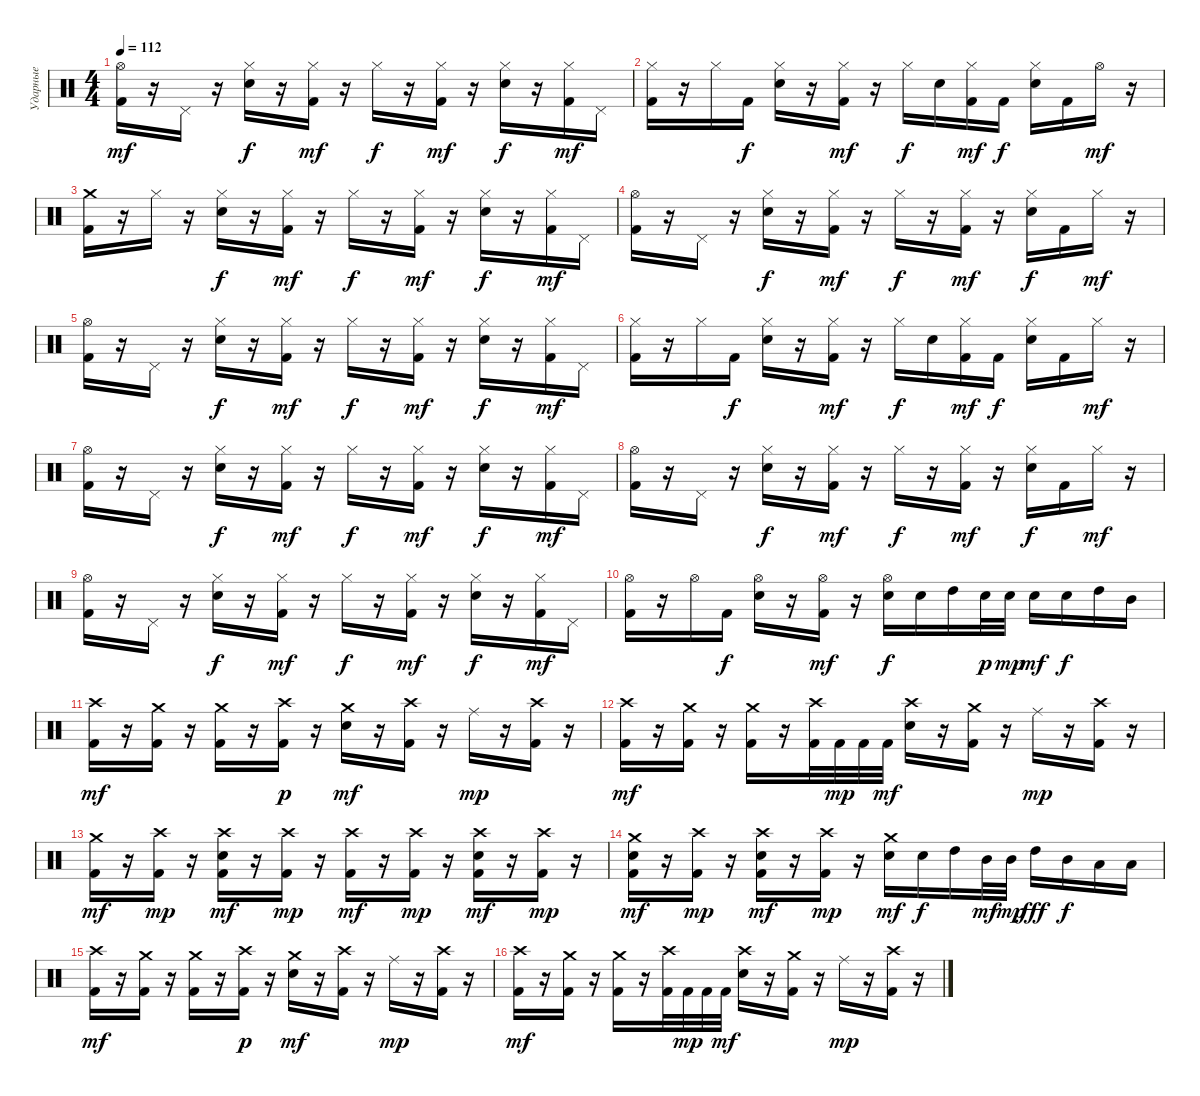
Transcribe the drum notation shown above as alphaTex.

\track ("Ударные" "Ударные") {instrument percussion}
\staff {score}
\articulation defaults
\ts (4 4)
\tempo 112
\clef neutral
\ks c
("Hi-Hat (open)" "Kick (hit) 2").16{dy mf} r.16 "Pedal Hi-Hat (hit)".16 r.16 ("Hi-Hat (closed)" "Electric Snare (hit)").16{dy f} r.16 ("Hi-Hat (closed)" "Kick (hit) 2").16{dy mf} r.16 "Hi-Hat (closed)".16{dy f} r.16 ("Hi-Hat (closed)" "Kick (hit) 2").16{dy mf} r.16 ("Hi-Hat (closed)" "Electric Snare (hit)").16{dy f} r.16 ("Hi-Hat (closed)" "Kick (hit) 2").16{dy mf} "Pedal Hi-Hat (hit)".16 |
("Hi-Hat (closed)" "Kick (hit) 2").16 r.16 "Hi-Hat (closed)".16 "Kick (hit) 2".16{dy f} ("Hi-Hat (closed)" "Electric Snare (hit)").16 r.16 ("Hi-Hat (closed)" "Kick (hit) 2").16{dy mf} r.16 "Hi-Hat (closed)".16{dy f} "Electric Snare (hit)".16 ("Hi-Hat (closed)" "Kick (hit) 2").16{dy mf} "Kick (hit) 2".16{dy f} ("Hi-Hat (closed)" "Electric Snare (hit)").16 "Kick (hit) 2".16 "Hi-Hat (open)".16{dy mf} r.16 |
("Crash medium (hit)" "Kick (hit) 2").16 r.16 "Hi-Hat (closed)".16 r.16 ("Hi-Hat (closed)" "Electric Snare (hit)").16{dy f} r.16 ("Hi-Hat (closed)" "Kick (hit) 2").16{dy mf} r.16 "Hi-Hat (closed)".16{dy f} r.16 ("Hi-Hat (closed)" "Kick (hit) 2").16{dy mf} r.16 ("Hi-Hat (closed)" "Electric Snare (hit)").16{dy f} r.16 ("Hi-Hat (closed)" "Kick (hit) 2").16{dy mf} "Pedal Hi-Hat (hit)".16 |
("Hi-Hat (open)" "Kick (hit) 2").16 r.16 "Pedal Hi-Hat (hit)".16 r.16 ("Hi-Hat (closed)" "Electric Snare (hit)").16{dy f} r.16 ("Hi-Hat (closed)" "Kick (hit) 2").16{dy mf} r.16 "Hi-Hat (closed)".16{dy f} r.16 ("Hi-Hat (closed)" "Kick (hit) 2").16{dy mf} r.16 ("Hi-Hat (closed)" "Electric Snare (hit)").16{dy f} "Kick (hit) 2".16 "Hi-Hat (closed)".16{dy mf} r.16 |
("Hi-Hat (open)" "Kick (hit) 2").16 r.16 "Pedal Hi-Hat (hit)".16 r.16 ("Hi-Hat (closed)" "Electric Snare (hit)").16{dy f} r.16 ("Hi-Hat (closed)" "Kick (hit) 2").16{dy mf} r.16 "Hi-Hat (closed)".16{dy f} r.16 ("Hi-Hat (closed)" "Kick (hit) 2").16{dy mf} r.16 ("Hi-Hat (closed)" "Electric Snare (hit)").16{dy f} r.16 ("Hi-Hat (closed)" "Kick (hit) 2").16{dy mf} "Pedal Hi-Hat (hit)".16 |
("Hi-Hat (closed)" "Kick (hit) 2").16 r.16 "Hi-Hat (closed)".16 "Kick (hit) 2".16{dy f} ("Hi-Hat (closed)" "Electric Snare (hit)").16 r.16 ("Hi-Hat (closed)" "Kick (hit) 2").16{dy mf} r.16 "Hi-Hat (closed)".16{dy f} "Electric Snare (hit)".16 ("Hi-Hat (closed)" "Kick (hit) 2").16{dy mf} "Kick (hit) 2".16{dy f} ("Hi-Hat (closed)" "Electric Snare (hit)").16 "Kick (hit) 2".16 "Hi-Hat (closed)".16{dy mf} r.16 |
("Hi-Hat (open)" "Kick (hit) 2").16 r.16 "Pedal Hi-Hat (hit)".16 r.16 ("Hi-Hat (closed)" "Electric Snare (hit)").16{dy f} r.16 ("Hi-Hat (closed)" "Kick (hit) 2").16{dy mf} r.16 "Hi-Hat (closed)".16{dy f} r.16 ("Hi-Hat (closed)" "Kick (hit) 2").16{dy mf} r.16 ("Hi-Hat (closed)" "Electric Snare (hit)").16{dy f} r.16 ("Hi-Hat (closed)" "Kick (hit) 2").16{dy mf} "Pedal Hi-Hat (hit)".16 |
("Hi-Hat (open)" "Kick (hit) 2").16 r.16 "Pedal Hi-Hat (hit)".16 r.16 ("Hi-Hat (closed)" "Electric Snare (hit)").16{dy f} r.16 ("Hi-Hat (closed)" "Kick (hit) 2").16{dy mf} r.16 "Hi-Hat (closed)".16{dy f} r.16 ("Hi-Hat (closed)" "Kick (hit) 2").16{dy mf} r.16 ("Hi-Hat (closed)" "Electric Snare (hit)").16{dy f} "Kick (hit) 2".16 "Hi-Hat (closed)".16{dy mf} r.16 |
("Hi-Hat (open)" "Kick (hit) 2").16 r.16 "Pedal Hi-Hat (hit)".16 r.16 ("Hi-Hat (closed)" "Electric Snare (hit)").16{dy f} r.16 ("Hi-Hat (closed)" "Kick (hit) 2").16{dy mf} r.16 "Hi-Hat (closed)".16{dy f} r.16 ("Hi-Hat (closed)" "Kick (hit) 2").16{dy mf} r.16 ("Hi-Hat (closed)" "Electric Snare (hit)").16{dy f} r.16 ("Hi-Hat (closed)" "Kick (hit) 2").16{dy mf} "Pedal Hi-Hat (hit)".16 |
("Hi-Hat (open)" "Kick (hit) 2").16 r.16 "Hi-Hat (open)".16 "Kick (hit) 2".16{dy f} ("Hi-Hat (open)" "Electric Snare (hit)").16 r.16 ("Hi-Hat (open)" "Kick (hit) 2").16{dy mf} r.16 ("Hi-Hat (open)" "Electric Snare (hit)").16{dy f} "Electric Snare (hit)".16 "High Tom (hit)".16 "Electric Snare (hit)".32{dy p} "Electric Snare (hit)".32{dy mp} "Electric Snare (hit)".16{dy mf} "Electric Snare (hit)".16{dy f} "High Tom (hit)".16 "Mid Tom (hit)".16 |
("Crash high (hit)" "Kick (hit) 2").16{dy mf} r.16 ("Crash medium (hit)" "Kick (hit) 2").16 r.16 ("Crash medium (hit)" "Kick (hit) 2").16 r.16 ("Crash high (hit)" "Kick (hit) 2").16{dy p} r.16 ("Crash medium (hit)" "Electric Snare (hit)").16{dy mf} r.16 ("Crash high (hit)" "Kick (hit) 2").16 r.16 "Ride (middle)".16{dy mp} r.16 ("Crash high (hit)" "Kick (hit) 2").16 r.16 |
("Crash high (hit)" "Kick (hit) 2").16{dy mf} r.16 ("Crash medium (hit)" "Kick (hit) 2").16 r.16 ("Crash medium (hit)" "Kick (hit) 2").16 r.16 ("Crash high (hit)" "Kick (hit) 2").32 "Kick (hit) 2".32{dy mp} "Kick (hit) 2".32 "Kick (hit) 2".32{dy mf} ("Crash high (hit)" "Electric Snare (hit)").16 r.16 ("Crash medium (hit)" "Kick (hit) 2").16 r.16 "Ride (middle)".16{dy mp} r.16 ("Crash high (hit)" "Kick (hit) 2").16 r.16 |
("Crash medium (hit)" "Kick (hit) 2").16{dy mf} r.16 ("Crash high (hit)" "Kick (hit) 2").16{dy mp} r.16 ("Crash high (hit)" "Electric Snare (hit)" "Kick (hit) 2").16{dy mf} r.16 ("Crash high (hit)" "Kick (hit) 2").16{dy mp} r.16 ("Crash high (hit)" "Kick (hit) 2").16{dy mf} r.16 ("Crash high (hit)" "Kick (hit) 2").16{dy mp} r.16 ("Crash high (hit)" "Electric Snare (hit)" "Kick (hit) 2").16{dy mf} r.16 ("Crash high (hit)" "Kick (hit) 2").16{dy mp} r.16 |
("Crash medium (hit)" "Electric Snare (hit)" "Kick (hit) 2").16{dy mf} r.16 ("Crash high (hit)" "Kick (hit) 2").16{dy mp} r.16 ("Crash high (hit)" "Electric Snare (hit)" "Kick (hit) 2").16{dy mf} r.16 ("Crash high (hit)" "Kick (hit) 2").16{dy mp} r.16 ("Crash medium (hit)" "Electric Snare (hit)").16{dy mf} "Electric Snare (hit)".16{dy f} "High Tom (hit)".16 "Mid Tom (hit)".32{dy mf} "Mid Tom (hit)".32{dy mp} "High Tom (hit)".16{dy fff} "Mid Tom (hit)".16{dy f} "Low Tom (hit)".16 "Low Tom (hit)".16 |
("Crash high (hit)" "Kick (hit) 2").16{dy mf} r.16 ("Crash medium (hit)" "Kick (hit) 2").16 r.16 ("Crash medium (hit)" "Kick (hit) 2").16 r.16 ("Crash high (hit)" "Kick (hit) 2").16{dy p} r.16 ("Crash medium (hit)" "Electric Snare (hit)").16{dy mf} r.16 ("Crash high (hit)" "Kick (hit) 2").16 r.16 "Ride (middle)".16{dy mp} r.16 ("Crash high (hit)" "Kick (hit) 2").16 r.16 |
("Crash high (hit)" "Kick (hit) 2").16{dy mf} r.16 ("Crash medium (hit)" "Kick (hit) 2").16 r.16 ("Crash medium (hit)" "Kick (hit) 2").16 r.16 ("Crash high (hit)" "Kick (hit) 2").32 "Kick (hit) 2".32{dy mp} "Kick (hit) 2".32 "Kick (hit) 2".32{dy mf} ("Crash high (hit)" "Electric Snare (hit)").16 r.16 ("Crash medium (hit)" "Kick (hit) 2").16 r.16 "Ride (middle)".16{dy mp} r.16 ("Crash high (hit)" "Kick (hit) 2").16 r.16
